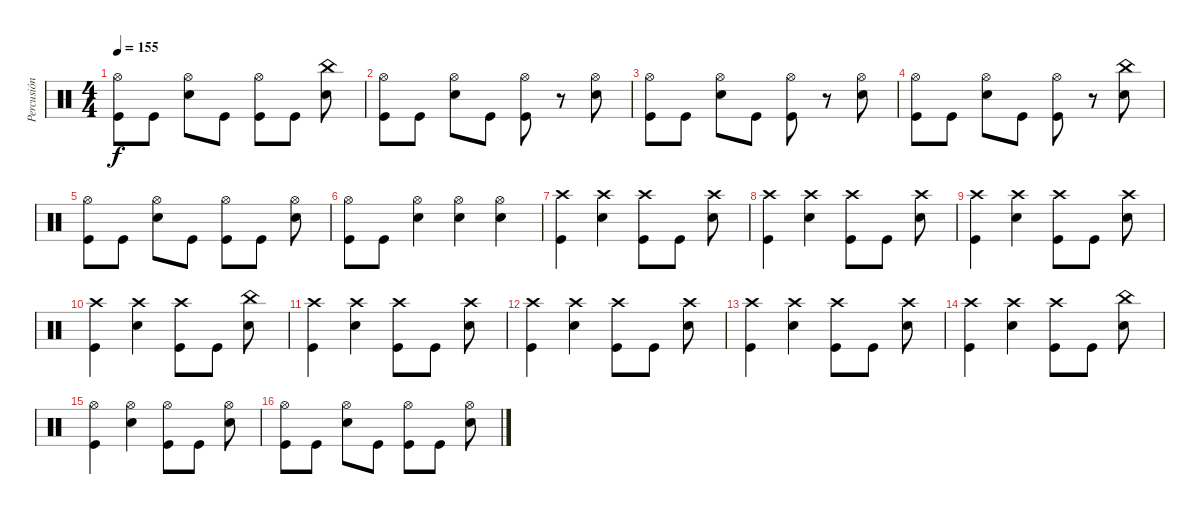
\track ("Percusión" "Percusión") {instrument percussion}
\staff {score}
\articulation defaults
\ts (4 4)
\tempo 155
\clef neutral
\ks c
("Kick (hit)" "Hi-Hat (open)").8{dy f} "Kick (hit)".8 ("Snare (hit) 2" "Hi-Hat (open)").8 "Kick (hit)".8 ("Kick (hit)" "Hi-Hat (open)").8 "Kick (hit)".8 ("Snare (hit) 2" "China (hit)").8 |
("Kick (hit)" "Hi-Hat (open)").8 "Kick (hit)".8 ("Snare (hit) 2" "Hi-Hat (open)").8 "Kick (hit)".8 ("Kick (hit)" "Hi-Hat (open)").8 r.8 ("Snare (hit) 2" "Hi-Hat (open)").8 |
("Kick (hit)" "Hi-Hat (open)").8 "Kick (hit)".8 ("Snare (hit) 2" "Hi-Hat (open)").8 "Kick (hit)".8 ("Kick (hit)" "Hi-Hat (open)").8 r.8 ("Snare (hit) 2" "Hi-Hat (open)").8 |
("Kick (hit)" "Hi-Hat (open)").8 "Kick (hit)".8 ("Snare (hit) 2" "Hi-Hat (open)").8 "Kick (hit)".8 ("Kick (hit)" "Hi-Hat (open)").8 r.8 ("Snare (hit) 2" "China (hit)").8 |
("Kick (hit)" "Hi-Hat (open)").8 "Kick (hit)".8 ("Snare (hit) 2" "Hi-Hat (open)").8 "Kick (hit)".8 ("Kick (hit)" "Hi-Hat (open)").8 "Kick (hit)".8 ("Snare (hit) 2" "Hi-Hat (open)").8 |
("Kick (hit)" "Hi-Hat (open)").8 "Kick (hit)".8 ("Snare (hit) 2" "Hi-Hat (open)").4 ("Snare (hit) 2" "Hi-Hat (open)").4 ("Snare (hit) 2" "Hi-Hat (open)").4 |
("Crash high (hit)" "Kick (hit)").4 ("Snare (hit) 2" "Crash high (hit)").4 ("Kick (hit)" "Crash high (hit)").8 "Kick (hit)".8 ("Snare (hit) 2" "Crash high (hit)").8 |
("Crash high (hit)" "Kick (hit)").4 ("Snare (hit) 2" "Crash high (hit)").4 ("Kick (hit)" "Crash high (hit)").8 "Kick (hit)".8 ("Snare (hit) 2" "Crash high (hit)").8 |
("Crash high (hit)" "Kick (hit)").4 ("Snare (hit) 2" "Crash high (hit)").4 ("Kick (hit)" "Crash high (hit)").8 "Kick (hit)".8 ("Snare (hit) 2" "Crash high (hit)").8 |
("Crash high (hit)" "Kick (hit)").4 ("Snare (hit) 2" "Crash high (hit)").4 ("Kick (hit)" "Crash high (hit)").8 "Kick (hit)".8 ("Snare (hit) 2" "China (hit)").8 |
("Crash high (hit)" "Kick (hit)").4 ("Snare (hit) 2" "Crash high (hit)").4 ("Kick (hit)" "Crash high (hit)").8 "Kick (hit)".8 ("Snare (hit) 2" "Crash high (hit)").8 |
("Crash high (hit)" "Kick (hit)").4 ("Snare (hit) 2" "Crash high (hit)").4 ("Kick (hit)" "Crash high (hit)").8 "Kick (hit)".8 ("Snare (hit) 2" "Crash high (hit)").8 |
("Crash high (hit)" "Kick (hit)").4 ("Snare (hit) 2" "Crash high (hit)").4 ("Kick (hit)" "Crash high (hit)").8 "Kick (hit)".8 ("Snare (hit) 2" "Crash high (hit)").8 |
("Crash high (hit)" "Kick (hit)").4 ("Snare (hit) 2" "Crash high (hit)").4 ("Kick (hit)" "Crash high (hit)").8 "Kick (hit)".8 ("Snare (hit) 2" "China (hit)").8 |
("Hi-Hat (open)" "Kick (hit)").4 ("Snare (hit) 2" "Hi-Hat (open)").4 ("Kick (hit)" "Hi-Hat (open)").8 "Kick (hit)".8 ("Snare (hit) 2" "Hi-Hat (open)").8 |
("Kick (hit)" "Hi-Hat (open)").8 "Kick (hit)".8 ("Snare (hit) 2" "Hi-Hat (open)").8 "Kick (hit)".8 ("Kick (hit)" "Hi-Hat (open)").8 "Kick (hit)".8 ("Snare (hit) 2" "Hi-Hat (open)").8
